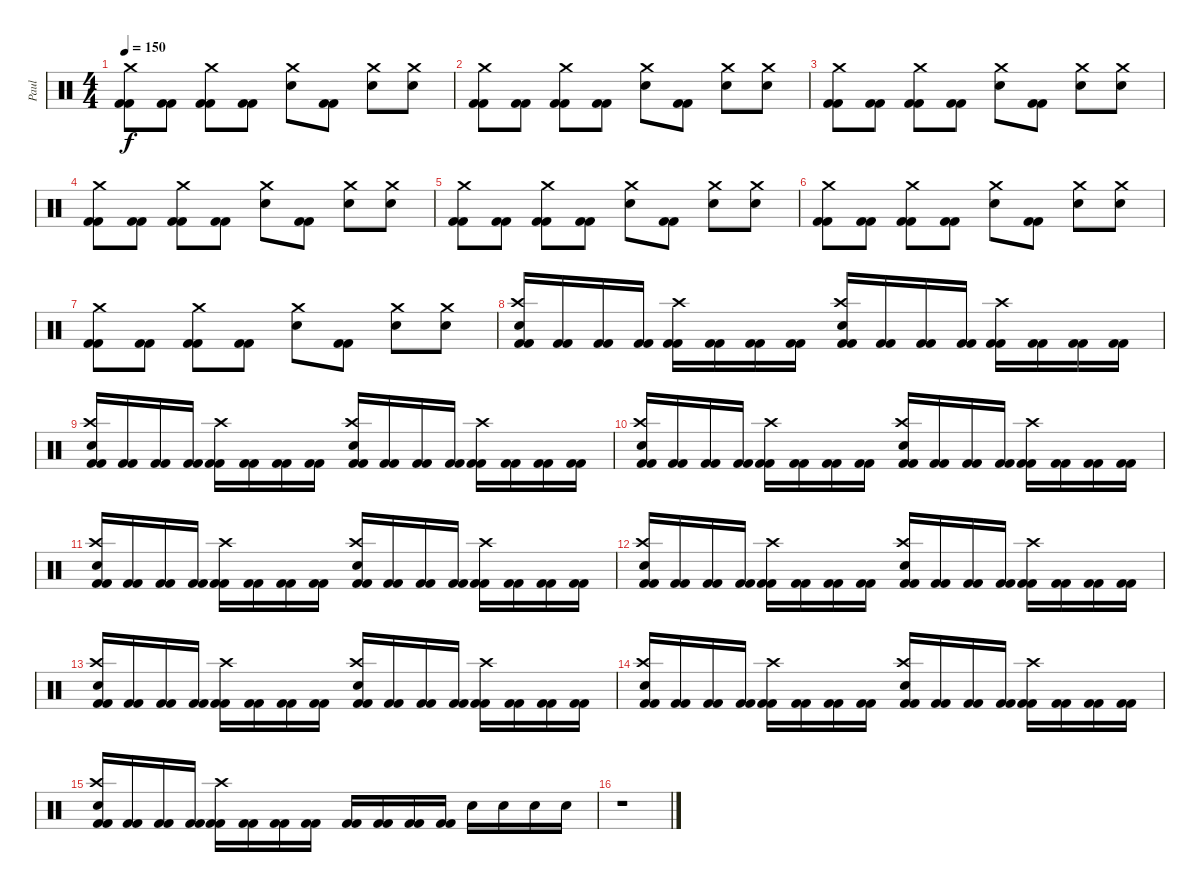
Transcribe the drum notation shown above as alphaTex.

\track ("Paul " "Paul ") {instrument percussion}
\staff {score}
\articulation defaults
\ts (4 4)
\tempo 150
\clef neutral
\ks c
("Crash medium (hit)" "Kick (hit) 2" "Kick (hit) 2").8{dy f} ("Kick (hit) 2" "Kick (hit) 2").8{txt " "} ("Crash medium (hit)" "Kick (hit) 2" "Kick (hit) 2").8 ("Kick (hit) 2" "Kick (hit) 2").8 ("Crash medium (hit)" "Snare (hit) 2").8 ("Kick (hit) 2" "Kick (hit) 2").8 ("Crash medium (hit)" "Snare (hit) 2").8 ("Crash medium (hit)" "Snare (hit) 2").8 |
("Crash medium (hit)" "Kick (hit) 2" "Kick (hit) 2").8 ("Kick (hit) 2" "Kick (hit) 2").8{txt " "} ("Crash medium (hit)" "Kick (hit) 2" "Kick (hit) 2").8 ("Kick (hit) 2" "Kick (hit) 2").8 ("Crash medium (hit)" "Snare (hit) 2").8 ("Kick (hit) 2" "Kick (hit) 2").8 ("Crash medium (hit)" "Snare (hit) 2").8 ("Crash medium (hit)" "Snare (hit) 2").8 |
("Crash medium (hit)" "Kick (hit) 2" "Kick (hit) 2").8 ("Kick (hit) 2" "Kick (hit) 2").8{txt " "} ("Crash medium (hit)" "Kick (hit) 2" "Kick (hit) 2").8 ("Kick (hit) 2" "Kick (hit) 2").8 ("Crash medium (hit)" "Snare (hit) 2").8 ("Kick (hit) 2" "Kick (hit) 2").8 ("Crash medium (hit)" "Snare (hit) 2").8 ("Crash medium (hit)" "Snare (hit) 2").8 |
("Crash medium (hit)" "Kick (hit) 2" "Kick (hit) 2").8 ("Kick (hit) 2" "Kick (hit) 2").8{txt " "} ("Crash medium (hit)" "Kick (hit) 2" "Kick (hit) 2").8 ("Kick (hit) 2" "Kick (hit) 2").8 ("Crash medium (hit)" "Snare (hit) 2").8 ("Kick (hit) 2" "Kick (hit) 2").8 ("Crash medium (hit)" "Snare (hit) 2").8 ("Crash medium (hit)" "Snare (hit) 2").8 |
("Crash medium (hit)" "Kick (hit) 2" "Kick (hit) 2").8 ("Kick (hit) 2" "Kick (hit) 2").8{txt " "} ("Crash medium (hit)" "Kick (hit) 2" "Kick (hit) 2").8 ("Kick (hit) 2" "Kick (hit) 2").8 ("Crash medium (hit)" "Snare (hit) 2").8 ("Kick (hit) 2" "Kick (hit) 2").8 ("Crash medium (hit)" "Snare (hit) 2").8 ("Crash medium (hit)" "Snare (hit) 2").8 |
("Crash medium (hit)" "Kick (hit) 2" "Kick (hit) 2").8 ("Kick (hit) 2" "Kick (hit) 2").8{txt " "} ("Crash medium (hit)" "Kick (hit) 2" "Kick (hit) 2").8 ("Kick (hit) 2" "Kick (hit) 2").8 ("Crash medium (hit)" "Snare (hit) 2").8 ("Kick (hit) 2" "Kick (hit) 2").8 ("Crash medium (hit)" "Snare (hit) 2").8 ("Crash medium (hit)" "Snare (hit) 2").8 |
("Crash medium (hit)" "Kick (hit) 2" "Kick (hit) 2").8 ("Kick (hit) 2" "Kick (hit) 2").8{txt " "} ("Crash medium (hit)" "Kick (hit) 2" "Kick (hit) 2").8 ("Kick (hit) 2" "Kick (hit) 2").8 ("Crash medium (hit)" "Snare (hit) 2").8 ("Kick (hit) 2" "Kick (hit) 2").8 ("Crash medium (hit)" "Snare (hit) 2").8 ("Crash medium (hit)" "Snare (hit) 2").8 |
("Crash high (hit)" "Electric Snare (hit)" "Kick (hit) 2" "Kick (hit) 2").16 ("Kick (hit) 2" "Kick (hit) 2").16 ("Kick (hit) 2" "Kick (hit) 2").16 ("Kick (hit) 2" "Kick (hit) 2").16 ("Crash high (hit)" "Kick (hit) 2" "Kick (hit) 2").16 ("Kick (hit) 2" "Kick (hit) 2").16 ("Kick (hit) 2" "Kick (hit) 2").16 ("Kick (hit) 2" "Kick (hit) 2").16 ("Crash high (hit)" "Electric Snare (hit)" "Kick (hit) 2" "Kick (hit) 2").16 ("Kick (hit) 2" "Kick (hit) 2").16 ("Kick (hit) 2" "Kick (hit) 2").16 ("Kick (hit) 2" "Kick (hit) 2").16 ("Crash high (hit)" "Kick (hit) 2" "Kick (hit) 2").16 ("Kick (hit) 2" "Kick (hit) 2").16 ("Kick (hit) 2" "Kick (hit) 2").16 ("Kick (hit) 2" "Kick (hit) 2").16 |
("Crash high (hit)" "Electric Snare (hit)" "Kick (hit) 2" "Kick (hit) 2").16 ("Kick (hit) 2" "Kick (hit) 2").16 ("Kick (hit) 2" "Kick (hit) 2").16 ("Kick (hit) 2" "Kick (hit) 2").16 ("Crash high (hit)" "Kick (hit) 2" "Kick (hit) 2").16 ("Kick (hit) 2" "Kick (hit) 2").16 ("Kick (hit) 2" "Kick (hit) 2").16 ("Kick (hit) 2" "Kick (hit) 2").16 ("Crash high (hit)" "Electric Snare (hit)" "Kick (hit) 2" "Kick (hit) 2").16 ("Kick (hit) 2" "Kick (hit) 2").16 ("Kick (hit) 2" "Kick (hit) 2").16 ("Kick (hit) 2" "Kick (hit) 2").16 ("Crash high (hit)" "Kick (hit) 2" "Kick (hit) 2").16 ("Kick (hit) 2" "Kick (hit) 2").16 ("Kick (hit) 2" "Kick (hit) 2").16 ("Kick (hit) 2" "Kick (hit) 2").16 |
("Crash high (hit)" "Electric Snare (hit)" "Kick (hit) 2" "Kick (hit) 2").16 ("Kick (hit) 2" "Kick (hit) 2").16 ("Kick (hit) 2" "Kick (hit) 2").16 ("Kick (hit) 2" "Kick (hit) 2").16 ("Crash high (hit)" "Kick (hit) 2" "Kick (hit) 2").16 ("Kick (hit) 2" "Kick (hit) 2").16 ("Kick (hit) 2" "Kick (hit) 2").16 ("Kick (hit) 2" "Kick (hit) 2").16 ("Crash high (hit)" "Electric Snare (hit)" "Kick (hit) 2" "Kick (hit) 2").16 ("Kick (hit) 2" "Kick (hit) 2").16 ("Kick (hit) 2" "Kick (hit) 2").16 ("Kick (hit) 2" "Kick (hit) 2").16 ("Crash high (hit)" "Kick (hit) 2" "Kick (hit) 2").16 ("Kick (hit) 2" "Kick (hit) 2").16 ("Kick (hit) 2" "Kick (hit) 2").16 ("Kick (hit) 2" "Kick (hit) 2").16 |
("Crash high (hit)" "Electric Snare (hit)" "Kick (hit) 2" "Kick (hit) 2").16 ("Kick (hit) 2" "Kick (hit) 2").16 ("Kick (hit) 2" "Kick (hit) 2").16 ("Kick (hit) 2" "Kick (hit) 2").16 ("Crash high (hit)" "Kick (hit) 2" "Kick (hit) 2").16 ("Kick (hit) 2" "Kick (hit) 2").16 ("Kick (hit) 2" "Kick (hit) 2").16 ("Kick (hit) 2" "Kick (hit) 2").16 ("Crash high (hit)" "Electric Snare (hit)" "Kick (hit) 2" "Kick (hit) 2").16 ("Kick (hit) 2" "Kick (hit) 2").16 ("Kick (hit) 2" "Kick (hit) 2").16 ("Kick (hit) 2" "Kick (hit) 2").16 ("Crash high (hit)" "Kick (hit) 2" "Kick (hit) 2").16 ("Kick (hit) 2" "Kick (hit) 2").16 ("Kick (hit) 2" "Kick (hit) 2").16 ("Kick (hit) 2" "Kick (hit) 2").16 |
("Crash high (hit)" "Electric Snare (hit)" "Kick (hit) 2" "Kick (hit) 2").16 ("Kick (hit) 2" "Kick (hit) 2").16 ("Kick (hit) 2" "Kick (hit) 2").16 ("Kick (hit) 2" "Kick (hit) 2").16 ("Crash high (hit)" "Kick (hit) 2" "Kick (hit) 2").16 ("Kick (hit) 2" "Kick (hit) 2").16 ("Kick (hit) 2" "Kick (hit) 2").16 ("Kick (hit) 2" "Kick (hit) 2").16 ("Crash high (hit)" "Electric Snare (hit)" "Kick (hit) 2" "Kick (hit) 2").16 ("Kick (hit) 2" "Kick (hit) 2").16 ("Kick (hit) 2" "Kick (hit) 2").16 ("Kick (hit) 2" "Kick (hit) 2").16 ("Crash high (hit)" "Kick (hit) 2" "Kick (hit) 2").16 ("Kick (hit) 2" "Kick (hit) 2").16 ("Kick (hit) 2" "Kick (hit) 2").16 ("Kick (hit) 2" "Kick (hit) 2").16 |
("Crash high (hit)" "Electric Snare (hit)" "Kick (hit) 2" "Kick (hit) 2").16 ("Kick (hit) 2" "Kick (hit) 2").16 ("Kick (hit) 2" "Kick (hit) 2").16 ("Kick (hit) 2" "Kick (hit) 2").16 ("Crash high (hit)" "Kick (hit) 2" "Kick (hit) 2").16 ("Kick (hit) 2" "Kick (hit) 2").16 ("Kick (hit) 2" "Kick (hit) 2").16 ("Kick (hit) 2" "Kick (hit) 2").16 ("Crash high (hit)" "Electric Snare (hit)" "Kick (hit) 2" "Kick (hit) 2").16 ("Kick (hit) 2" "Kick (hit) 2").16 ("Kick (hit) 2" "Kick (hit) 2").16 ("Kick (hit) 2" "Kick (hit) 2").16 ("Crash high (hit)" "Kick (hit) 2" "Kick (hit) 2").16 ("Kick (hit) 2" "Kick (hit) 2").16 ("Kick (hit) 2" "Kick (hit) 2").16 ("Kick (hit) 2" "Kick (hit) 2").16 |
("Crash high (hit)" "Electric Snare (hit)" "Kick (hit) 2" "Kick (hit) 2").16 ("Kick (hit) 2" "Kick (hit) 2").16 ("Kick (hit) 2" "Kick (hit) 2").16 ("Kick (hit) 2" "Kick (hit) 2").16 ("Crash high (hit)" "Kick (hit) 2" "Kick (hit) 2").16 ("Kick (hit) 2" "Kick (hit) 2").16 ("Kick (hit) 2" "Kick (hit) 2").16 ("Kick (hit) 2" "Kick (hit) 2").16 ("Crash high (hit)" "Electric Snare (hit)" "Kick (hit) 2" "Kick (hit) 2").16 ("Kick (hit) 2" "Kick (hit) 2").16 ("Kick (hit) 2" "Kick (hit) 2").16 ("Kick (hit) 2" "Kick (hit) 2").16 ("Crash high (hit)" "Kick (hit) 2" "Kick (hit) 2").16 ("Kick (hit) 2" "Kick (hit) 2").16 ("Kick (hit) 2" "Kick (hit) 2").16 ("Kick (hit) 2" "Kick (hit) 2").16 |
("Crash high (hit)" "Electric Snare (hit)" "Kick (hit) 2" "Kick (hit) 2").16 ("Kick (hit) 2" "Kick (hit) 2").16 ("Kick (hit) 2" "Kick (hit) 2").16 ("Kick (hit) 2" "Kick (hit) 2").16 ("Crash high (hit)" "Kick (hit) 2" "Kick (hit) 2").16 ("Kick (hit) 2" "Kick (hit) 2").16 ("Kick (hit) 2" "Kick (hit) 2").16 ("Kick (hit) 2" "Kick (hit) 2").16 ("Kick (hit) 2" "Kick (hit) 2").16 ("Kick (hit) 2" "Kick (hit) 2").16 ("Kick (hit) 2" "Kick (hit) 2").16 ("Kick (hit) 2" "Kick (hit) 2").16 "Electric Snare (hit)".16 "Electric Snare (hit)".16 "Electric Snare (hit)".16 "Electric Snare (hit)".16 |
r.1
